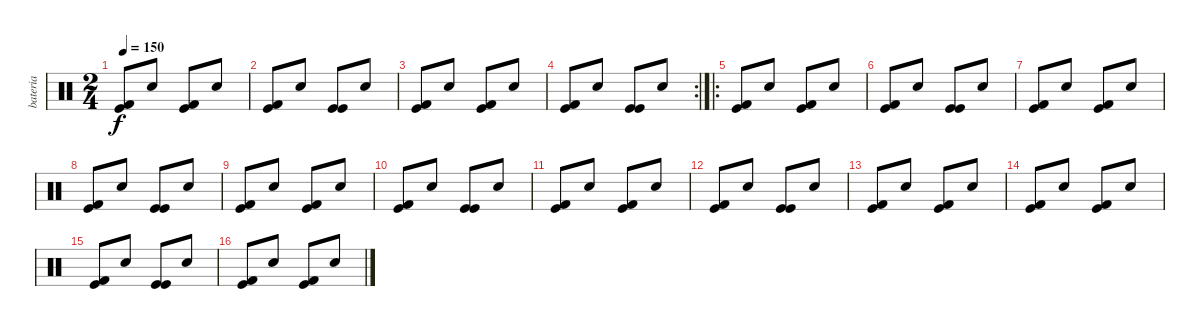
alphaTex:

\track ("bateria" "bateria") {instrument percussion}
\staff {score}
\articulation defaults
\ts (2 4)
\tempo 150
\clef neutral
\ks c
("Kick (hit) 2" "Kick (hit)").8{dy f} "Electric Snare (hit)".8 ("Kick (hit) 2" "Kick (hit)").8 "Electric Snare (hit)".8 |
("Kick (hit) 2" "Kick (hit)").8 "Electric Snare (hit)".8 ("Kick (hit)" "Kick (hit)").8 "Electric Snare (hit)".8 |
("Kick (hit) 2" "Kick (hit)").8 "Electric Snare (hit)".8 ("Kick (hit) 2" "Kick (hit)").8 "Electric Snare (hit)".8 |
\rc 2
("Kick (hit) 2" "Kick (hit)").8 "Electric Snare (hit)".8 ("Kick (hit)" "Kick (hit)").8 "Electric Snare (hit)".8 |
\ro
("Kick (hit) 2" "Kick (hit)").8 "Electric Snare (hit)".8 ("Kick (hit) 2" "Kick (hit)").8 "Electric Snare (hit)".8 |
("Kick (hit) 2" "Kick (hit)").8 "Electric Snare (hit)".8 ("Kick (hit)" "Kick (hit)").8 "Electric Snare (hit)".8 |
("Kick (hit) 2" "Kick (hit)").8 "Electric Snare (hit)".8 ("Kick (hit) 2" "Kick (hit)").8 "Electric Snare (hit)".8 |
("Kick (hit) 2" "Kick (hit)").8 "Electric Snare (hit)".8 ("Kick (hit)" "Kick (hit)").8 "Electric Snare (hit)".8 |
("Kick (hit) 2" "Kick (hit)").8 "Electric Snare (hit)".8 ("Kick (hit) 2" "Kick (hit)").8 "Electric Snare (hit)".8 |
("Kick (hit) 2" "Kick (hit)").8 "Electric Snare (hit)".8 ("Kick (hit)" "Kick (hit)").8 "Electric Snare (hit)".8 |
("Kick (hit) 2" "Kick (hit)").8 "Electric Snare (hit)".8 ("Kick (hit) 2" "Kick (hit)").8 "Electric Snare (hit)".8 |
("Kick (hit) 2" "Kick (hit)").8 "Electric Snare (hit)".8 ("Kick (hit)" "Kick (hit)").8 "Electric Snare (hit)".8 |
("Kick (hit) 2" "Kick (hit)").8 "Electric Snare (hit)".8 ("Kick (hit) 2" "Kick (hit)").8 "Electric Snare (hit)".8 |
("Kick (hit) 2" "Kick (hit)").8 "Electric Snare (hit)".8 ("Kick (hit) 2" "Kick (hit)").8 "Electric Snare (hit)".8 |
("Kick (hit) 2" "Kick (hit)").8 "Electric Snare (hit)".8 ("Kick (hit)" "Kick (hit)").8 "Electric Snare (hit)".8 |
("Kick (hit) 2" "Kick (hit)").8 "Electric Snare (hit)".8 ("Kick (hit) 2" "Kick (hit)").8 "Electric Snare (hit)".8
